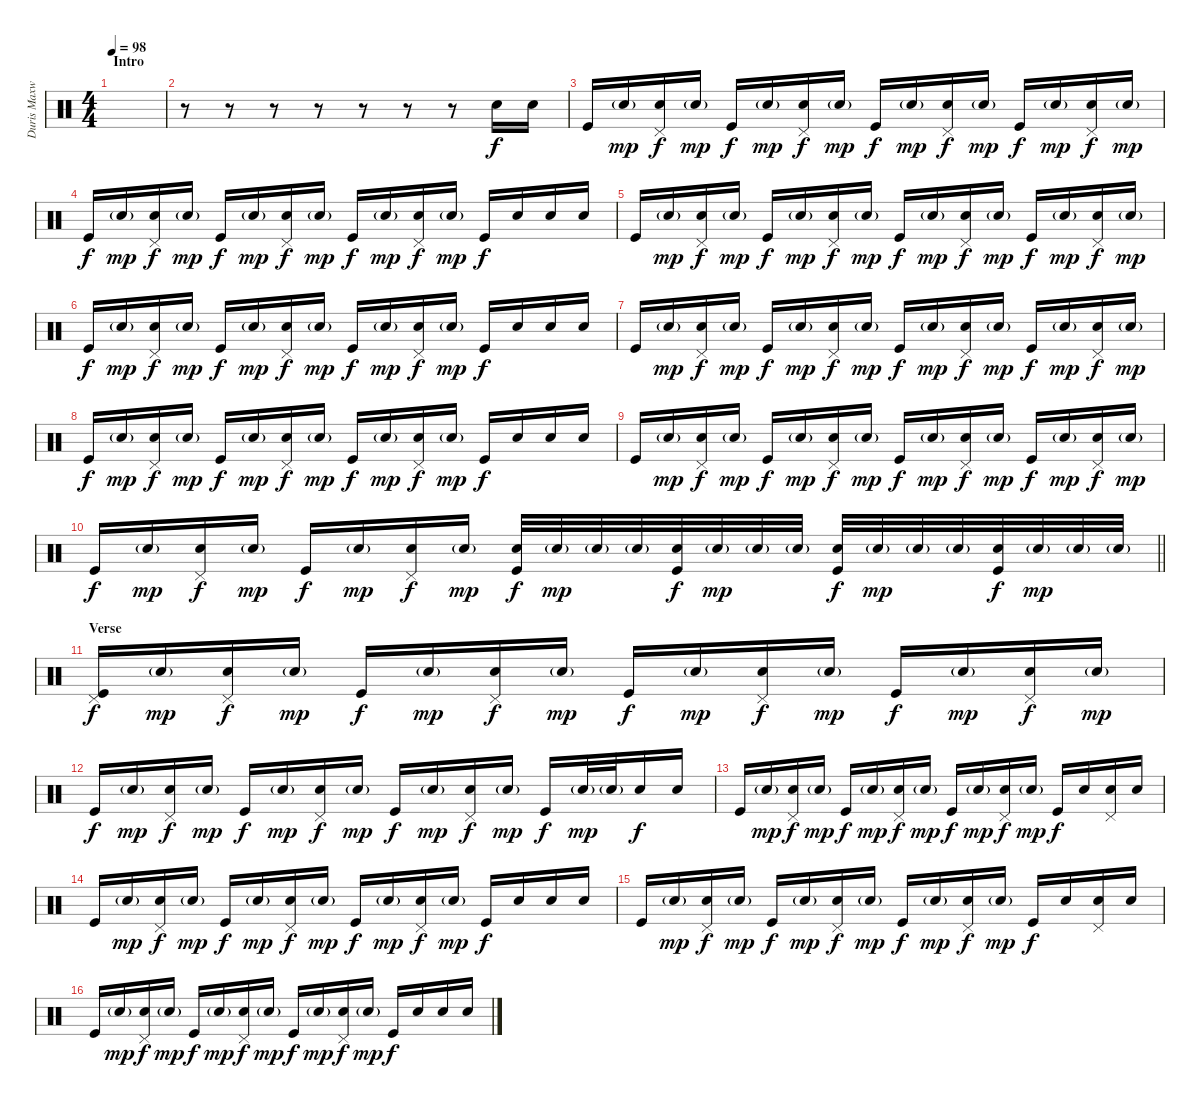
\track ("Duris Maxwell" "Duris Maxw") {instrument percussion}
\staff {score}
\articulation defaults
\ts (4 4)
\section ("" "Intro")
\tempo 98
\clef neutral
\ks c
|
r.8 r.8 r.8 r.8 r.8 r.8 r.8 "Snare (hit) 2".16 "Snare (hit) 2".16 |
"Kick (hit)".16 "Snare (hit) 2"{g}.16{dy mp} ("Pedal Hi-Hat (hit)" "Snare (hit) 2").16{dy f} "Snare (hit) 2"{g}.16{dy mp} "Kick (hit)".16{dy f} "Snare (hit) 2"{g}.16{dy mp} ("Pedal Hi-Hat (hit)" "Snare (hit) 2").16{dy f} "Snare (hit) 2"{g}.16{dy mp} "Kick (hit)".16{dy f} "Snare (hit) 2"{g}.16{dy mp} ("Pedal Hi-Hat (hit)" "Snare (hit) 2").16{dy f} "Snare (hit) 2"{g}.16{dy mp} "Kick (hit)".16{dy f} "Snare (hit) 2"{g}.16{dy mp} ("Pedal Hi-Hat (hit)" "Snare (hit) 2").16{dy f} "Snare (hit) 2"{g}.16{dy mp} |
"Kick (hit)".16{dy f} "Snare (hit) 2"{g}.16{dy mp} ("Pedal Hi-Hat (hit)" "Snare (hit) 2").16{dy f} "Snare (hit) 2"{g}.16{dy mp} "Kick (hit)".16{dy f} "Snare (hit) 2"{g}.16{dy mp} ("Pedal Hi-Hat (hit)" "Snare (hit) 2").16{dy f} "Snare (hit) 2"{g}.16{dy mp} "Kick (hit)".16{dy f} "Snare (hit) 2"{g}.16{dy mp} ("Pedal Hi-Hat (hit)" "Snare (hit) 2").16{dy f} "Snare (hit) 2"{g}.16{dy mp} "Kick (hit)".16{dy f} "Snare (hit) 2".16 "Snare (hit) 2".16 "Snare (hit) 2".16 |
"Kick (hit)".16 "Snare (hit) 2"{g}.16{dy mp} ("Pedal Hi-Hat (hit)" "Snare (hit) 2").16{dy f} "Snare (hit) 2"{g}.16{dy mp} "Kick (hit)".16{dy f} "Snare (hit) 2"{g}.16{dy mp} ("Pedal Hi-Hat (hit)" "Snare (hit) 2").16{dy f} "Snare (hit) 2"{g}.16{dy mp} "Kick (hit)".16{dy f} "Snare (hit) 2"{g}.16{dy mp} ("Pedal Hi-Hat (hit)" "Snare (hit) 2").16{dy f} "Snare (hit) 2"{g}.16{dy mp} "Kick (hit)".16{dy f} "Snare (hit) 2"{g}.16{dy mp} ("Pedal Hi-Hat (hit)" "Snare (hit) 2").16{dy f} "Snare (hit) 2"{g}.16{dy mp} |
"Kick (hit)".16{dy f} "Snare (hit) 2"{g}.16{dy mp} ("Pedal Hi-Hat (hit)" "Snare (hit) 2").16{dy f} "Snare (hit) 2"{g}.16{dy mp} "Kick (hit)".16{dy f} "Snare (hit) 2"{g}.16{dy mp} ("Pedal Hi-Hat (hit)" "Snare (hit) 2").16{dy f} "Snare (hit) 2"{g}.16{dy mp} "Kick (hit)".16{dy f} "Snare (hit) 2"{g}.16{dy mp} ("Pedal Hi-Hat (hit)" "Snare (hit) 2").16{dy f} "Snare (hit) 2"{g}.16{dy mp} "Kick (hit)".16{dy f} "Snare (hit) 2".16 "Snare (hit) 2".16 "Snare (hit) 2".16 |
"Kick (hit)".16 "Snare (hit) 2"{g}.16{dy mp} ("Pedal Hi-Hat (hit)" "Snare (hit) 2").16{dy f} "Snare (hit) 2"{g}.16{dy mp} "Kick (hit)".16{dy f} "Snare (hit) 2"{g}.16{dy mp} ("Pedal Hi-Hat (hit)" "Snare (hit) 2").16{dy f} "Snare (hit) 2"{g}.16{dy mp} "Kick (hit)".16{dy f} "Snare (hit) 2"{g}.16{dy mp} ("Pedal Hi-Hat (hit)" "Snare (hit) 2").16{dy f} "Snare (hit) 2"{g}.16{dy mp} "Kick (hit)".16{dy f} "Snare (hit) 2"{g}.16{dy mp} ("Pedal Hi-Hat (hit)" "Snare (hit) 2").16{dy f} "Snare (hit) 2"{g}.16{dy mp} |
"Kick (hit)".16{dy f} "Snare (hit) 2"{g}.16{dy mp} ("Pedal Hi-Hat (hit)" "Snare (hit) 2").16{dy f} "Snare (hit) 2"{g}.16{dy mp} "Kick (hit)".16{dy f} "Snare (hit) 2"{g}.16{dy mp} ("Pedal Hi-Hat (hit)" "Snare (hit) 2").16{dy f} "Snare (hit) 2"{g}.16{dy mp} "Kick (hit)".16{dy f} "Snare (hit) 2"{g}.16{dy mp} ("Pedal Hi-Hat (hit)" "Snare (hit) 2").16{dy f} "Snare (hit) 2"{g}.16{dy mp} "Kick (hit)".16{dy f} "Snare (hit) 2".16 "Snare (hit) 2".16 "Snare (hit) 2".16 |
"Kick (hit)".16 "Snare (hit) 2"{g}.16{dy mp} ("Pedal Hi-Hat (hit)" "Snare (hit) 2").16{dy f} "Snare (hit) 2"{g}.16{dy mp} "Kick (hit)".16{dy f} "Snare (hit) 2"{g}.16{dy mp} ("Pedal Hi-Hat (hit)" "Snare (hit) 2").16{dy f} "Snare (hit) 2"{g}.16{dy mp} "Kick (hit)".16{dy f} "Snare (hit) 2"{g}.16{dy mp} ("Pedal Hi-Hat (hit)" "Snare (hit) 2").16{dy f} "Snare (hit) 2"{g}.16{dy mp} "Kick (hit)".16{dy f} "Snare (hit) 2"{g}.16{dy mp} ("Pedal Hi-Hat (hit)" "Snare (hit) 2").16{dy f} "Snare (hit) 2"{g}.16{dy mp} |
\barLineRight lightlight "Kick (hit)".16{dy f} "Snare (hit) 2"{g}.16{dy mp}
("Pedal Hi-Hat (hit)" "Snare (hit) 2").16{dy f} "Snare (hit) 2"{g}.16{dy mp} "Kick (hit)".16{dy f} "Snare (hit) 2"{g}.16{dy mp} ("Pedal Hi-Hat (hit)" "Snare (hit) 2").16{dy f} "Snare (hit) 2"{g}.16{dy mp} ("Snare (hit) 2" "Kick (hit)").32{dy f} "Snare (hit) 2"{g}.32{dy mp} "Snare (hit) 2"{g}.32 "Snare (hit) 2"{g}.32 ("Snare (hit) 2" "Kick (hit)").32{dy f} "Snare (hit) 2"{g}.32{dy mp} "Snare (hit) 2"{g}.32 "Snare (hit) 2"{g}.32 ("Snare (hit) 2" "Kick (hit)").32{dy f} "Snare (hit) 2"{g}.32{dy mp} "Snare (hit) 2"{g}.32 "Snare (hit) 2"{g}.32 ("Snare (hit) 2" "Kick (hit)").32{dy f} "Snare (hit) 2"{g}.32{dy mp} "Snare (hit) 2"{g}.32 "Snare (hit) 2"{g}.32 |
\section ("" "Verse")
("Pedal Hi-Hat (hit)" "Kick (hit)").16{dy f} "Snare (hit) 2"{g}.16{dy mp} ("Pedal Hi-Hat (hit)" "Snare (hit) 2").16{dy f} "Snare (hit) 2"{g}.16{dy mp} "Kick (hit)".16{dy f} "Snare (hit) 2"{g}.16{dy mp} ("Pedal Hi-Hat (hit)" "Snare (hit) 2").16{dy f} "Snare (hit) 2"{g}.16{dy mp} "Kick (hit)".16{dy f} "Snare (hit) 2"{g}.16{dy mp} ("Pedal Hi-Hat (hit)" "Snare (hit) 2").16{dy f} "Snare (hit) 2"{g}.16{dy mp} "Kick (hit)".16{dy f} "Snare (hit) 2"{g}.16{dy mp} ("Pedal Hi-Hat (hit)" "Snare (hit) 2").16{dy f} "Snare (hit) 2"{g}.16{dy mp} |
"Kick (hit)".16{dy f} "Snare (hit) 2"{g}.16{dy mp} ("Pedal Hi-Hat (hit)" "Snare (hit) 2").16{dy f} "Snare (hit) 2"{g}.16{dy mp} "Kick (hit)".16{dy f} "Snare (hit) 2"{g}.16{dy mp} ("Pedal Hi-Hat (hit)" "Snare (hit) 2").16{dy f} "Snare (hit) 2"{g}.16{dy mp} "Kick (hit)".16{dy f} "Snare (hit) 2"{g}.16{dy mp} ("Pedal Hi-Hat (hit)" "Snare (hit) 2").16{dy f} "Snare (hit) 2"{g}.16{dy mp} "Kick (hit)".16{dy f} "Snare (hit) 2"{g}.32{dy mp} "Snare (hit) 2"{g}.32 "Snare (hit) 2".16{dy f} "Snare (hit) 2".16 |
"Kick (hit)".16 "Snare (hit) 2"{g}.16{dy mp} ("Pedal Hi-Hat (hit)" "Snare (hit) 2").16{dy f} "Snare (hit) 2"{g}.16{dy mp} "Kick (hit)".16{dy f} "Snare (hit) 2"{g}.16{dy mp} ("Pedal Hi-Hat (hit)" "Snare (hit) 2").16{dy f} "Snare (hit) 2"{g}.16{dy mp} "Kick (hit)".16{dy f} "Snare (hit) 2"{g}.16{dy mp} ("Pedal Hi-Hat (hit)" "Snare (hit) 2").16{dy f} "Snare (hit) 2"{g}.16{dy mp} "Kick (hit)".16{dy f} "Snare (hit) 2".16 ("Pedal Hi-Hat (hit)" "Snare (hit) 2").16 "Snare (hit) 2".16 |
"Kick (hit)".16 "Snare (hit) 2"{g}.16{dy mp} ("Pedal Hi-Hat (hit)" "Snare (hit) 2").16{dy f} "Snare (hit) 2"{g}.16{dy mp} "Kick (hit)".16{dy f} "Snare (hit) 2"{g}.16{dy mp} ("Pedal Hi-Hat (hit)" "Snare (hit) 2").16{dy f} "Snare (hit) 2"{g}.16{dy mp} "Kick (hit)".16{dy f} "Snare (hit) 2"{g}.16{dy mp} ("Pedal Hi-Hat (hit)" "Snare (hit) 2").16{dy f} "Snare (hit) 2"{g}.16{dy mp} "Kick (hit)".16{dy f} "Snare (hit) 2".16 "Snare (hit) 2".16 "Snare (hit) 2".16 |
"Kick (hit)".16 "Snare (hit) 2"{g}.16{dy mp} ("Pedal Hi-Hat (hit)" "Snare (hit) 2").16{dy f} "Snare (hit) 2"{g}.16{dy mp} "Kick (hit)".16{dy f} "Snare (hit) 2"{g}.16{dy mp} ("Pedal Hi-Hat (hit)" "Snare (hit) 2").16{dy f} "Snare (hit) 2"{g}.16{dy mp} "Kick (hit)".16{dy f} "Snare (hit) 2"{g}.16{dy mp} ("Pedal Hi-Hat (hit)" "Snare (hit) 2").16{dy f} "Snare (hit) 2"{g}.16{dy mp} "Kick (hit)".16{dy f} "Snare (hit) 2".16 ("Pedal Hi-Hat (hit)" "Snare (hit) 2").16 "Snare (hit) 2".16 |
"Kick (hit)".16 "Snare (hit) 2"{g}.16{dy mp} ("Pedal Hi-Hat (hit)" "Snare (hit) 2").16{dy f} "Snare (hit) 2"{g}.16{dy mp} "Kick (hit)".16{dy f} "Snare (hit) 2"{g}.16{dy mp} ("Pedal Hi-Hat (hit)" "Snare (hit) 2").16{dy f} "Snare (hit) 2"{g}.16{dy mp} "Kick (hit)".16{dy f} "Snare (hit) 2"{g}.16{dy mp} ("Pedal Hi-Hat (hit)" "Snare (hit) 2").16{dy f} "Snare (hit) 2"{g}.16{dy mp} "Kick (hit)".16{dy f} "Snare (hit) 2".16 "Snare (hit) 2".16 "Snare (hit) 2".16
